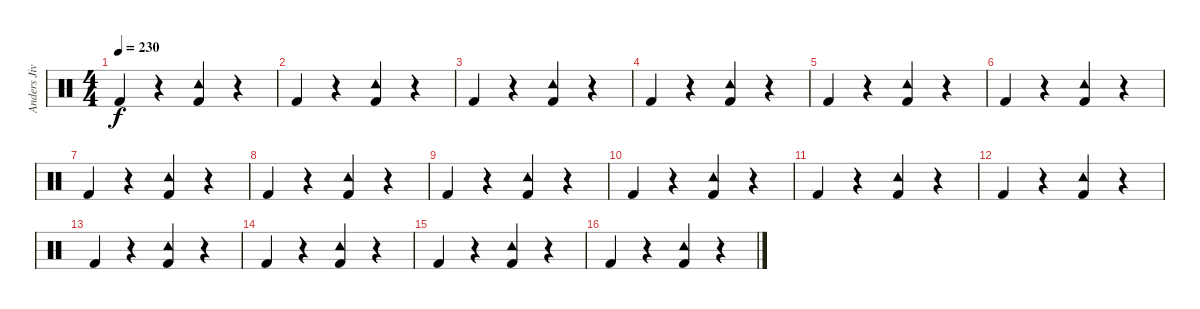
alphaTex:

\track ("Anders Jivarp" "Anders Jiv") {instrument percussion}
\staff {score}
\articulation defaults
\ts (4 4)
\tempo 230
\clef neutral
\ks c "Kick (hit) 2".4{dy f}
r.4 ("Kick (hit) 2" "Tambourine (hit)").4 r.4 |
"Kick (hit) 2".4 r.4 ("Kick (hit) 2" "Tambourine (hit)").4 r.4 |
"Kick (hit) 2".4 r.4 ("Kick (hit) 2" "Tambourine (hit)").4 r.4 |
"Kick (hit) 2".4 r.4 ("Kick (hit) 2" "Tambourine (hit)").4 r.4 |
"Kick (hit) 2".4 r.4 ("Kick (hit) 2" "Tambourine (hit)").4 r.4 |
"Kick (hit) 2".4 r.4 ("Kick (hit) 2" "Tambourine (hit)").4 r.4 |
"Kick (hit) 2".4 r.4 ("Kick (hit) 2" "Tambourine (hit)").4 r.4 |
"Kick (hit) 2".4 r.4 ("Kick (hit) 2" "Tambourine (hit)").4 r.4 |
"Kick (hit) 2".4 r.4 ("Kick (hit) 2" "Tambourine (hit)").4 r.4 |
"Kick (hit) 2".4 r.4 ("Kick (hit) 2" "Tambourine (hit)").4 r.4 |
"Kick (hit) 2".4 r.4 ("Kick (hit) 2" "Tambourine (hit)").4 r.4 |
"Kick (hit) 2".4 r.4 ("Kick (hit) 2" "Tambourine (hit)").4 r.4 |
"Kick (hit) 2".4 r.4 ("Kick (hit) 2" "Tambourine (hit)").4 r.4 |
"Kick (hit) 2".4 r.4 ("Kick (hit) 2" "Tambourine (hit)").4 r.4 |
"Kick (hit) 2".4 r.4 ("Kick (hit) 2" "Tambourine (hit)").4 r.4 |
"Kick (hit) 2".4 r.4 ("Kick (hit) 2" "Tambourine (hit)").4 r.4
